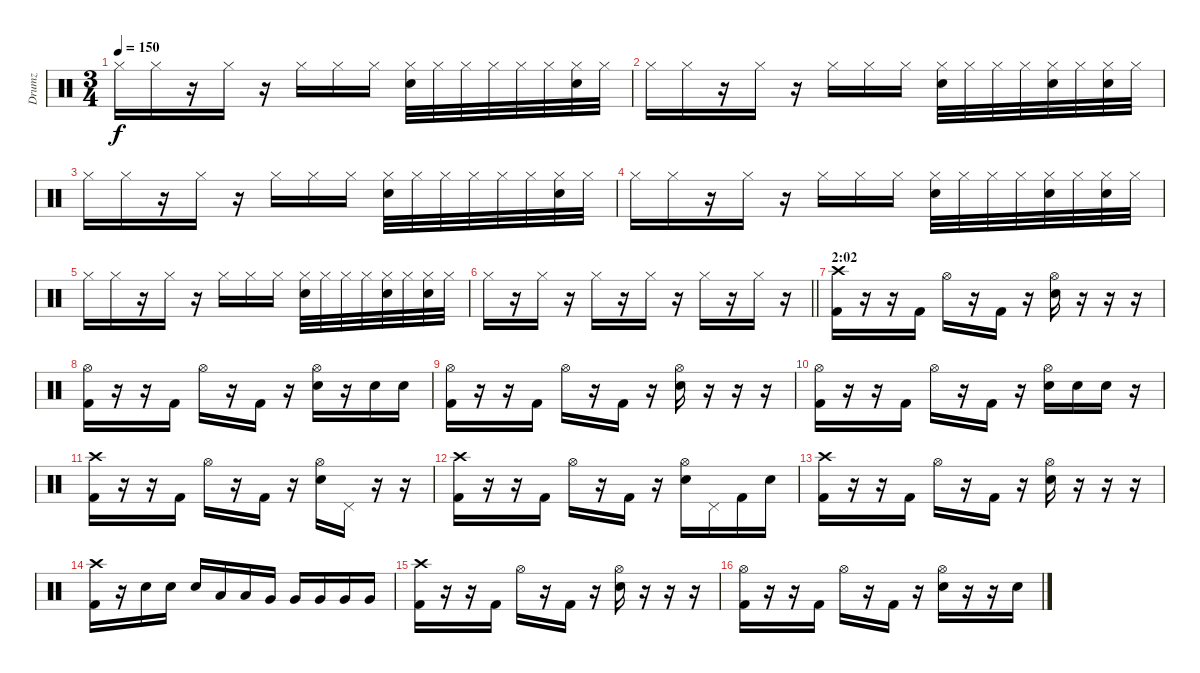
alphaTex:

\track ("Drumz" "Drumz") {instrument percussion}
\staff {score}
\articulation defaults
\ts (3 4)
\tempo 150
\clef neutral
\ks c "Hi-Hat (closed)".16{dy f} "Hi-Hat (closed)".16
r.16 "Hi-Hat (closed)".16 r.16 "Hi-Hat (closed)".16 "Hi-Hat (closed)".16 "Hi-Hat (closed)".16 ("Hi-Hat (closed)" "Snare (hit) 2").32 "Hi-Hat (closed)".32 "Hi-Hat (closed)".32 "Hi-Hat (closed)".32 "Hi-Hat (closed)".32 "Hi-Hat (closed)".32 ("Hi-Hat (closed)" "Snare (hit) 2").32 "Hi-Hat (closed)".32 |
"Hi-Hat (closed)".16 "Hi-Hat (closed)".16 r.16 "Hi-Hat (closed)".16 r.16 "Hi-Hat (closed)".16 "Hi-Hat (closed)".16 "Hi-Hat (closed)".16 ("Hi-Hat (closed)" "Snare (hit) 2").32 "Hi-Hat (closed)".32 "Hi-Hat (closed)".32 "Hi-Hat (closed)".32 ("Hi-Hat (closed)" "Snare (hit) 2").32 "Hi-Hat (closed)".32 ("Hi-Hat (closed)" "Snare (hit) 2").32 "Hi-Hat (closed)".32 |
"Hi-Hat (closed)".16 "Hi-Hat (closed)".16 r.16 "Hi-Hat (closed)".16 r.16 "Hi-Hat (closed)".16 "Hi-Hat (closed)".16 "Hi-Hat (closed)".16 ("Hi-Hat (closed)" "Snare (hit) 2").32 "Hi-Hat (closed)".32 "Hi-Hat (closed)".32 "Hi-Hat (closed)".32 "Hi-Hat (closed)".32 "Hi-Hat (closed)".32 ("Hi-Hat (closed)" "Snare (hit) 2").32 "Hi-Hat (closed)".32 |
"Hi-Hat (closed)".16 "Hi-Hat (closed)".16 r.16 "Hi-Hat (closed)".16 r.16 "Hi-Hat (closed)".16 "Hi-Hat (closed)".16 "Hi-Hat (closed)".16 ("Hi-Hat (closed)" "Snare (hit) 2").32 "Hi-Hat (closed)".32 "Hi-Hat (closed)".32 "Hi-Hat (closed)".32 ("Hi-Hat (closed)" "Snare (hit) 2").32 "Hi-Hat (closed)".32 ("Hi-Hat (closed)" "Snare (hit) 2").32 "Hi-Hat (closed)".32 |
"Hi-Hat (closed)".16 "Hi-Hat (closed)".16 r.16 "Hi-Hat (closed)".16 r.16 "Hi-Hat (closed)".16 "Hi-Hat (closed)".16 "Hi-Hat (closed)".16 ("Hi-Hat (closed)" "Snare (hit) 2").32 "Hi-Hat (closed)".32 "Hi-Hat (closed)".32 "Hi-Hat (closed)".32 ("Hi-Hat (closed)" "Snare (hit) 2").32 "Hi-Hat (closed)".32 ("Hi-Hat (closed)" "Snare (hit) 2").32 "Hi-Hat (closed)".32 |
\barLineRight lightlight "Hi-Hat (closed)".16
r.16 "Hi-Hat (closed)".16 r.16 "Hi-Hat (closed)".16 r.16 "Hi-Hat (closed)".16 r.16 "Hi-Hat (closed)".16 r.16 "Hi-Hat (closed)".16 r.16 |
\section ("" "2:02")
("Crash high (hit)" "Kick (hit) 2").16 r.16 r.16 "Kick (hit) 2".16 "Hi-Hat (open)".16 r.16 "Kick (hit) 2".16 r.16 ("Hi-Hat (open)" "Electric Snare (hit)").16 r.16 r.16 r.16 |
("Hi-Hat (open)" "Kick (hit) 2").16 r.16 r.16 "Kick (hit) 2".16 "Hi-Hat (open)".16 r.16 "Kick (hit) 2".16 r.16 ("Hi-Hat (open)" "Electric Snare (hit)").16 r.16 "Electric Snare (hit)".16 "Electric Snare (hit)".16 |
("Hi-Hat (open)" "Kick (hit) 2").16 r.16 r.16 "Kick (hit) 2".16 "Hi-Hat (open)".16 r.16 "Kick (hit) 2".16 r.16 ("Hi-Hat (open)" "Electric Snare (hit)").16 r.16 r.16 r.16 |
("Hi-Hat (open)" "Kick (hit) 2").16 r.16 r.16 "Kick (hit) 2".16 "Hi-Hat (open)".16 r.16 "Kick (hit) 2".16 r.16 ("Hi-Hat (open)" "Electric Snare (hit)").16 "Electric Snare (hit)".16 "Electric Snare (hit)".16 r.16 |
("Crash high (hit)" "Kick (hit) 2").16 r.16 r.16 "Kick (hit) 2".16 "Hi-Hat (open)".16 r.16 "Kick (hit) 2".16 r.16 ("Hi-Hat (open)" "Electric Snare (hit)").16 "Pedal Hi-Hat (hit)".16 r.16 r.16 |
("Crash high (hit)" "Kick (hit) 2").16 r.16 r.16 "Kick (hit) 2".16 "Hi-Hat (open)".16 r.16 "Kick (hit) 2".16 r.16 ("Hi-Hat (open)" "Electric Snare (hit)").16 "Pedal Hi-Hat (hit)".16 "Kick (hit) 2".16 "Electric Snare (hit)".16 |
("Crash high (hit)" "Kick (hit) 2").16 r.16 r.16 "Kick (hit) 2".16 "Hi-Hat (open)".16 r.16 "Kick (hit) 2".16 r.16 ("Hi-Hat (open)" "Electric Snare (hit)").16 r.16 r.16 r.16 |
("Crash high (hit)" "Kick (hit) 2").16 r.16 "Electric Snare (hit)".16 "Electric Snare (hit)".16 "Electric Snare (hit)".16 "Low Tom (hit)".16 "Low Tom (hit)".16 "Very Low Tom (hit)".16 "Very Low Tom (hit)".16 "Very Low Tom (hit)".16 "Very Low Tom (hit)".16 "Very Low Tom (hit)".16 |
("Crash high (hit)" "Kick (hit) 2").16 r.16 r.16 "Kick (hit) 2".16 "Hi-Hat (open)".16 r.16 "Kick (hit) 2".16 r.16 ("Hi-Hat (open)" "Electric Snare (hit)").16 r.16 r.16 r.16 |
("Hi-Hat (open)" "Kick (hit) 2").16 r.16 r.16 "Kick (hit) 2".16 "Hi-Hat (open)".16 r.16 "Kick (hit) 2".16 r.16 ("Hi-Hat (open)" "Electric Snare (hit)").16 r.16 r.16 "Electric Snare (hit)".16
